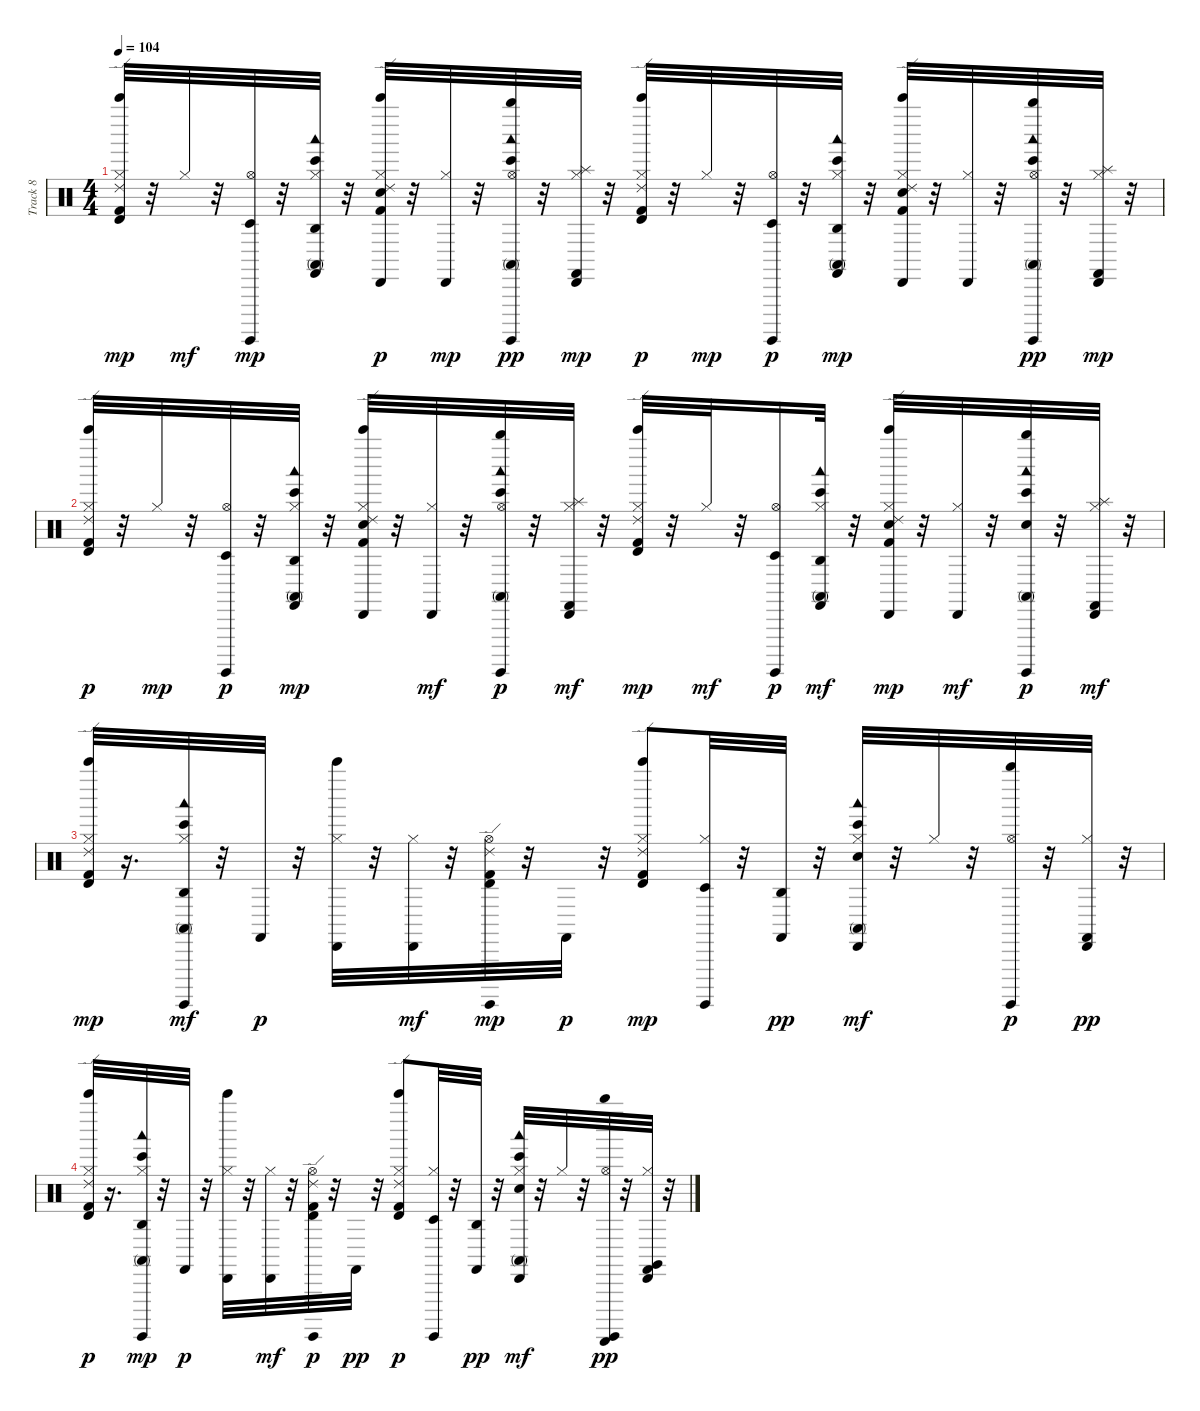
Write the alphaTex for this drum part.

\track ("Track 8" "Track 8") {instrument percussion}
\staff {score}
\articulation defaults
\ts (4 4)
\tempo 104
\clef neutral
\ks c
("Timbale high (hit)" "Ride (edge) 2" "Kick (hit) 2" "Bell Tree (hit)" "Hi-Hat (closed)").32{dy mp} r.32 "Hi-Hat (closed)".32{dy mf} r.32 ("Timbale low (hit)" "Surdo (hit)" "Hi-Hat (open)").32{dy mp} r.32 ("Agogo high (hit)" "Conga high (mute)" "Bongo High (hit)" "Woodblock low (hit)" "Castanets (hit)" "Hi-Hat (closed)").32 r.32 ("Cabasa (hit)" "Ride (edge) 2" "Kick (hit) 2" "Electric Snare (hit)" "Bell Tree (hit)" "Hi-Hat (closed)").32{dy p} r.32 ("Cabasa (hit)" "Hi-Hat (closed)").32{dy mp} r.32 ("Whistle high (hit)" "Bongo High (hit)" "Conga high (mute)" "Woodblock low (hit)" "Surdo (hit)" "Hi-Hat (open)").32{dy pp} r.32 ("Cabasa (hit)" "Castanets (hit)" "Hi-Hat (closed)" "Splash (hit)").32{dy mp} r.32 ("Timbale high (hit)" "Ride (edge) 2" "Kick (hit) 2" "Bell Tree (hit)" "Hi-Hat (closed)").32{dy p} r.32 "Hi-Hat (closed)".32{dy mp} r.32 ("Timbale low (hit)" "Surdo (hit)" "Hi-Hat (open)").32{dy p} r.32 ("Agogo high (hit)" "Bongo High (hit)" "Conga high (mute)" "Woodblock low (hit)" "Castanets (hit)" "Hi-Hat (closed)").32{dy mp} r.32 ("Cabasa (hit)" "Ride (edge) 2" "Kick (hit) 2" "Electric Snare (hit)" "Bell Tree (hit)" "Hi-Hat (closed)").32 r.32 ("Cabasa (hit)" "Hi-Hat (closed)").32 r.32 ("Whistle high (hit)" "Conga high (mute)" "Bongo High (hit)" "Woodblock low (hit)" "Surdo (hit)" "Hi-Hat (open)").32{dy pp} r.32 ("Cabasa (hit)" "Castanets (hit)" "Hi-Hat (closed)" "Splash (hit)").32{dy mp} r.32 |
("Timbale high (hit)" "Ride (edge) 2" "Kick (hit) 2" "Bell Tree (hit)" "Hi-Hat (closed)").32{dy p} r.32 "Hi-Hat (closed)".32{dy mp} r.32 ("Timbale low (hit)" "Surdo (hit)" "Hi-Hat (open)").32{dy p} r.32 ("Woodblock low (hit)" "Agogo high (hit)" "Bongo High (hit)" "Conga high (mute)" "Castanets (hit)" "Hi-Hat (closed)").32{dy mp} r.32 ("Cabasa (hit)" "Ride (edge) 2" "Kick (hit) 2" "Electric Snare (hit)" "Bell Tree (hit)" "Hi-Hat (closed)").32 r.32 ("Cabasa (hit)" "Hi-Hat (closed)").32{dy mf} r.32 ("Woodblock low (hit)" "Whistle high (hit)" "Bongo High (hit)" "Conga high (mute)" "Surdo (hit)" "Hi-Hat (open)").32{dy p} r.32 ("Cabasa (hit)" "Castanets (hit)" "Hi-Hat (closed)" "Splash (hit)").32{dy mf} r.32 ("Timbale high (hit)" "Ride (edge) 2" "Kick (hit) 2" "Bell Tree (hit)" "Hi-Hat (closed)").32{dy mp} r.32 "Hi-Hat (closed)".32{dy mf} r.32 ("Timbale low (hit)" "Surdo (hit)" "Hi-Hat (open)").16{dy p} ("Woodblock low (hit)" "Agogo high (hit)" "Bongo High (hit)" "Conga high (mute)" "Castanets (hit)" "Hi-Hat (closed)").32{dy mf} r.32 ("Cabasa (hit)" "Ride (edge) 2" "Kick (hit) 2" "Electric Snare (hit)" "Bell Tree (hit)" "Hi-Hat (closed)").32{dy mp} r.32 ("Cabasa (hit)" "Hi-Hat (closed)").32{dy mf} r.32 ("Woodblock low (hit)" "Whistle high (hit)" "Bongo High (hit)" "Conga high (mute)" "Electric Snare (hit)" "Surdo (hit)").32{dy p} r.32 ("Cabasa (hit)" "Castanets (hit)" "Hi-Hat (closed)" "Splash (hit)").32{dy mf} r.32 |
("Ride (edge) 2" "Timbale high (hit)" "Kick (hit) 2" "Hi-Hat (closed)" "Bell Tree (hit)").32{dy mp} r.16{d} ("Bongo High (hit)" "Agogo high (hit)" "Conga high (mute)" "Hi-Hat (closed)" "Surdo (hit)" "Woodblock low (hit)").32{dy mf} r.32 "Castanets (hit)".32{dy p} r.32 ("Cabasa (hit)" "Hi-Hat (closed)" "Bell Tree (hit)").32 r.32 ("Cabasa (hit)" "Hi-Hat (closed)").32{dy mf} r.32 ("Ride (edge) 2" "Timbale high (hit)" "Kick (hit) 2" "Hi-Hat (open)" "Surdo (hit)").32{dy mp} r.32 "Castanets (hit)".32{dy p} r.32 ("Ride (edge) 2" "Timbale high (hit)" "Kick (hit) 2" "Hi-Hat (closed)" "Bell Tree (hit)").8{dy mp} ("Timbale low (hit)" "Hi-Hat (closed)" "Surdo (hit)").32 r.32 ("Agogo high (hit)" "Castanets (hit)").32{dy pp} r.32 ("Bongo High (hit)" "Cabasa (hit)" "Conga high (mute)" "Electric Snare (hit)" "Hi-Hat (closed)" "Woodblock low (hit)").32{dy mf} r.32 "Hi-Hat (closed)".32 r.32 ("Whistle high (hit)" "Hi-Hat (open)" "Surdo (hit)").32{dy p} r.32 ("Cabasa (hit)" "Hi-Hat (closed)" "Castanets (hit)").32{dy pp} r.32 |
("Ride (edge) 2" "Timbale high (hit)" "Kick (hit) 2" "Hi-Hat (closed)" "Bell Tree (hit)").32{dy p} r.16{d} ("Bongo High (hit)" "Agogo high (hit)" "Conga high (mute)" "Hi-Hat (closed)" "Woodblock low (hit)" "Surdo (hit)").32{dy mp} r.32 "Castanets (hit)".32{dy p} r.32 ("Cabasa (hit)" "Hi-Hat (closed)" "Bell Tree (hit)").32 r.32 ("Cabasa (hit)" "Hi-Hat (closed)").32{dy mf} r.32 ("Ride (edge) 2" "Timbale high (hit)" "Kick (hit) 2" "Hi-Hat (open)" "Surdo (hit)").32{dy p} r.32 "Castanets (hit)".32{dy pp} r.32 ("Ride (edge) 2" "Timbale high (hit)" "Kick (hit) 2" "Hi-Hat (closed)" "Bell Tree (hit)").8{dy p} ("Timbale low (hit)" "Hi-Hat (closed)" "Surdo (hit)").32 r.32 ("Agogo high (hit)" "Castanets (hit)").32{dy pp} r.32 ("Bongo High (hit)" "Cabasa (hit)" "Conga high (mute)" "Electric Snare (hit)" "Hi-Hat (closed)" "Woodblock low (hit)").32{dy mf} r.32 "Hi-Hat (closed)".32 r.32 ("Whistle high (hit)" "Hi-Hat (open)" "Surdo (hit)" "Guiro (scrap-return)").32{dy pp} r.32 ("Cabasa (hit)" "Hi-Hat (closed)" "Castanets (hit)" "Claves (hit)").32 r.32
